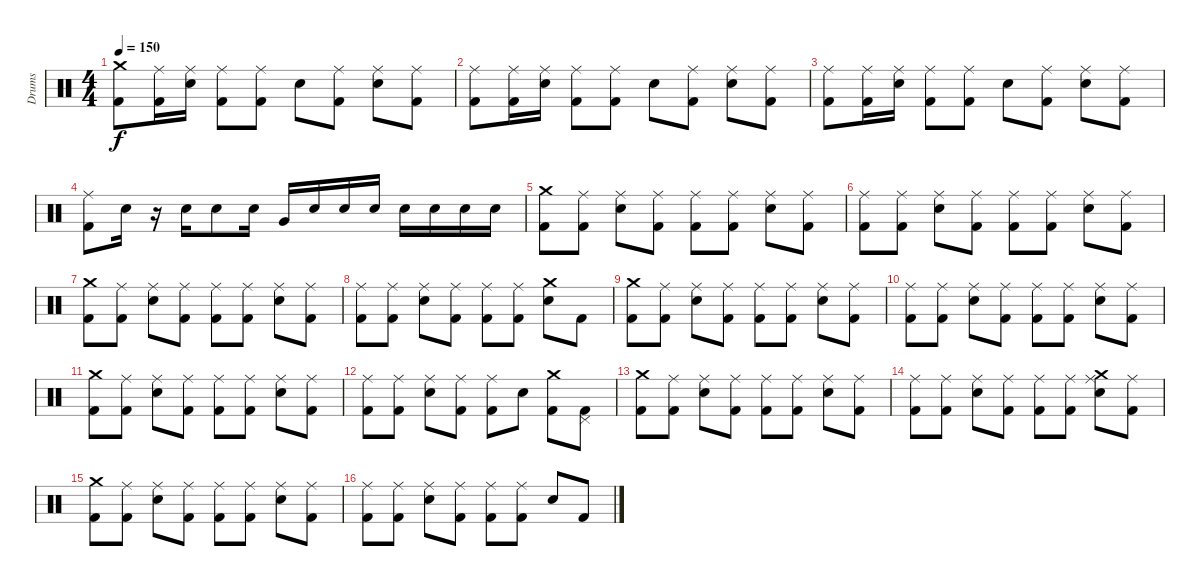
\track ("Drums" "Drums") {instrument percussion}
\staff {score}
\articulation defaults
\ts (4 4)
\tempo 150
\clef neutral
\ks c
("Crash medium (hit)" "Kick (hit) 2").8{dy f} ("Ride (middle)" "Kick (hit) 2").16 ("Ride (middle)" "Electric Snare (hit)").16 ("Ride (middle)" "Kick (hit) 2").8 ("Ride (middle)" "Kick (hit) 2").8 "Electric Snare (hit)".8 ("Ride (middle)" "Kick (hit) 2").8 ("Ride (middle)" "Electric Snare (hit)").8 ("Ride (middle)" "Kick (hit) 2").8 |
("Ride (middle)" "Kick (hit) 2").8 ("Ride (middle)" "Kick (hit) 2").16 ("Ride (middle)" "Electric Snare (hit)").16 ("Ride (middle)" "Kick (hit) 2").8 ("Ride (middle)" "Kick (hit) 2").8 "Electric Snare (hit)".8 ("Ride (middle)" "Kick (hit) 2").8 ("Ride (middle)" "Electric Snare (hit)").8 ("Ride (middle)" "Kick (hit) 2").8 |
("Ride (middle)" "Kick (hit) 2").8 ("Ride (middle)" "Kick (hit) 2").16 ("Ride (middle)" "Electric Snare (hit)").16 ("Ride (middle)" "Kick (hit) 2").8 ("Ride (middle)" "Kick (hit) 2").8 "Electric Snare (hit)".8 ("Ride (middle)" "Kick (hit) 2").8 ("Ride (middle)" "Electric Snare (hit)").8 ("Ride (middle)" "Kick (hit) 2").8 |
("Ride (middle)" "Kick (hit) 2").8 "Electric Snare (hit)".16 r.16 "Electric Snare (hit)".16 "Electric Snare (hit)".8 "Electric Snare (hit)".16 "Very Low Tom (hit)".16 "Electric Snare (hit)".16 "Electric Snare (hit)".16 "Electric Snare (hit)".16 "Electric Snare (hit)".16 "Electric Snare (hit)".16 "Electric Snare (hit)".16 "Electric Snare (hit)".16 |
("Crash medium (hit)" "Kick (hit) 2").8 ("Ride (middle)" "Kick (hit) 2").8 ("Ride (middle)" "Electric Snare (hit)").8 ("Ride (middle)" "Kick (hit) 2").8 ("Ride (middle)" "Kick (hit) 2").8 ("Ride (middle)" "Kick (hit) 2").8 ("Ride (middle)" "Electric Snare (hit)").8 ("Ride (middle)" "Kick (hit) 2").8 |
("Ride (middle)" "Kick (hit) 2").8 ("Ride (middle)" "Kick (hit) 2").8 ("Ride (middle)" "Electric Snare (hit)").8 ("Ride (middle)" "Kick (hit) 2").8 ("Ride (middle)" "Kick (hit) 2").8 ("Ride (middle)" "Kick (hit) 2").8 ("Ride (middle)" "Electric Snare (hit)").8 ("Ride (middle)" "Kick (hit) 2").8 |
("Crash medium (hit)" "Kick (hit) 2").8 ("Ride (middle)" "Kick (hit) 2").8 ("Ride (middle)" "Electric Snare (hit)").8 ("Ride (middle)" "Kick (hit) 2").8 ("Ride (middle)" "Kick (hit) 2").8 ("Ride (middle)" "Kick (hit) 2").8 ("Ride (middle)" "Electric Snare (hit)").8 ("Ride (middle)" "Kick (hit) 2").8 |
("Ride (middle)" "Kick (hit) 2").8 ("Ride (middle)" "Kick (hit) 2").8 ("Ride (middle)" "Electric Snare (hit)").8 ("Ride (middle)" "Kick (hit) 2").8 ("Ride (middle)" "Kick (hit) 2").8 ("Ride (middle)" "Kick (hit) 2").8 ("Crash medium (hit)" "Electric Snare (hit)").8 "Kick (hit) 2".8 |
("Crash medium (hit)" "Kick (hit) 2").8 ("Ride (middle)" "Kick (hit) 2").8 ("Ride (middle)" "Electric Snare (hit)").8 ("Ride (middle)" "Kick (hit) 2").8 ("Ride (middle)" "Kick (hit) 2").8 ("Ride (middle)" "Kick (hit) 2").8 ("Ride (middle)" "Electric Snare (hit)").8 ("Ride (middle)" "Kick (hit) 2").8 |
("Ride (middle)" "Kick (hit) 2").8 ("Ride (middle)" "Kick (hit) 2").8 ("Ride (middle)" "Electric Snare (hit)").8 ("Ride (middle)" "Kick (hit) 2").8 ("Ride (middle)" "Kick (hit) 2").8 ("Ride (middle)" "Kick (hit) 2").8 ("Ride (middle)" "Electric Snare (hit)").8 ("Ride (middle)" "Kick (hit) 2").8 |
("Crash medium (hit)" "Kick (hit) 2").8 ("Ride (middle)" "Kick (hit) 2").8 ("Ride (middle)" "Electric Snare (hit)").8 ("Ride (middle)" "Kick (hit) 2").8 ("Ride (middle)" "Kick (hit) 2").8 ("Ride (middle)" "Kick (hit) 2").8 ("Ride (middle)" "Electric Snare (hit)").8 ("Ride (middle)" "Kick (hit) 2").8 |
("Ride (middle)" "Kick (hit) 2").8 ("Ride (middle)" "Kick (hit) 2").8 ("Ride (middle)" "Electric Snare (hit)").8 ("Ride (middle)" "Kick (hit) 2").8 ("Ride (middle)" "Kick (hit) 2").8 "Electric Snare (hit)".8 ("Crash medium (hit)" "Kick (hit) 2").8 ("Pedal Hi-Hat (hit)" "Kick (hit) 2").8 |
("Crash medium (hit)" "Kick (hit) 2").8 ("Ride (middle)" "Kick (hit) 2").8 ("Ride (middle)" "Electric Snare (hit)").8 ("Ride (middle)" "Kick (hit) 2").8 ("Ride (middle)" "Kick (hit) 2").8 ("Ride (middle)" "Kick (hit) 2").8 ("Ride (middle)" "Electric Snare (hit)").8 ("Ride (middle)" "Kick (hit) 2").8 |
("Ride (middle)" "Kick (hit) 2").8 ("Ride (middle)" "Kick (hit) 2").8 ("Ride (middle)" "Electric Snare (hit)").8 ("Ride (middle)" "Kick (hit) 2").8 ("Ride (middle)" "Kick (hit) 2").8 ("Ride (middle)" "Kick (hit) 2").8 ("Crash medium (hit)" "Ride (middle)" "Electric Snare (hit)").8 ("Ride (middle)" "Kick (hit) 2").8 |
("Crash medium (hit)" "Kick (hit) 2").8 ("Ride (middle)" "Kick (hit) 2").8 ("Ride (middle)" "Electric Snare (hit)").8 ("Ride (middle)" "Kick (hit) 2").8 ("Ride (middle)" "Kick (hit) 2").8 ("Ride (middle)" "Kick (hit) 2").8 ("Ride (middle)" "Electric Snare (hit)").8 ("Ride (middle)" "Kick (hit) 2").8 |
("Ride (middle)" "Kick (hit) 2").8 ("Ride (middle)" "Kick (hit) 2").8 ("Ride (middle)" "Electric Snare (hit)").8 ("Ride (middle)" "Kick (hit) 2").8 ("Ride (middle)" "Kick (hit) 2").8 ("Ride (middle)" "Kick (hit) 2").8 "Electric Snare (hit)".8 "Kick (hit) 2".8
